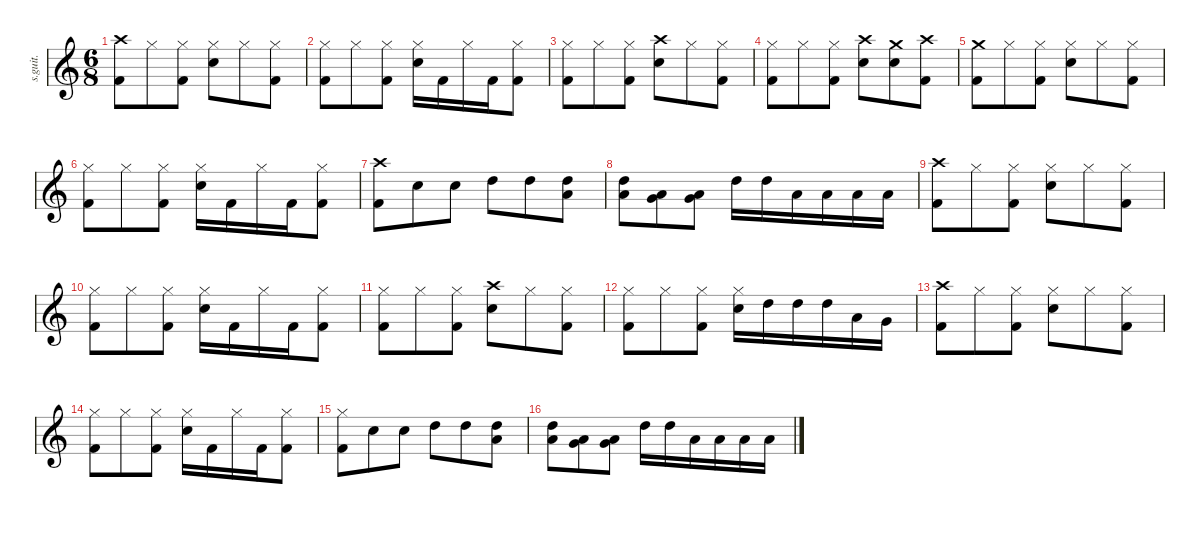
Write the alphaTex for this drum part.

\defaultSystemsLayout 4
\hideDynamics
\bracketExtendMode nobrackets
\track ("Drumkit" "s.guit.") {instrument percussion}
\staff {score}
\articulation defaults
\ts (6 8)
\tempo (78 hide)
\clef g2
\ks c
("Crash high (hit)" "Kick (hit) 2").8{lyrics (0 "") lyrics (1 "") lyrics (2 "") lyrics (3 "") lyrics (4 "") dy f} "Hi-Hat (closed)".8{lyrics (0 "") lyrics (1 "") lyrics (2 "") lyrics (3 "") lyrics (4 "")} ("Hi-Hat (closed)" "Kick (hit) 2").8{lyrics (0 "") lyrics (1 "") lyrics (2 "") lyrics (3 "") lyrics (4 "")} ("Hi-Hat (closed)" "Snare (hit) 2").8{lyrics (0 "") lyrics (1 "") lyrics (2 "") lyrics (3 "") lyrics (4 "")} "Hi-Hat (closed)".8{lyrics (0 "") lyrics (1 "") lyrics (2 "") lyrics (3 "") lyrics (4 "")} ("Hi-Hat (closed)" "Kick (hit) 2").8{lyrics (0 "") lyrics (1 "") lyrics (2 "") lyrics (3 "") lyrics (4 "")} |
("Hi-Hat (closed)" "Kick (hit) 2").8{lyrics (0 "") lyrics (1 "") lyrics (2 "") lyrics (3 "") lyrics (4 "")} "Hi-Hat (closed)".8{lyrics (0 "") lyrics (1 "") lyrics (2 "") lyrics (3 "") lyrics (4 "")} ("Hi-Hat (closed)" "Kick (hit) 2").8{lyrics (0 "") lyrics (1 "") lyrics (2 "") lyrics (3 "") lyrics (4 "")} ("Hi-Hat (closed)" "Snare (hit) 2").16{lyrics (0 "") lyrics (1 "") lyrics (2 "") lyrics (3 "") lyrics (4 "")} "Kick (hit) 2".16{lyrics (0 "") lyrics (1 "") lyrics (2 "") lyrics (3 "") lyrics (4 "")} "Hi-Hat (closed)".16{lyrics (0 "") lyrics (1 "") lyrics (2 "") lyrics (3 "") lyrics (4 "")} "Kick (hit) 2".16{lyrics (0 "") lyrics (1 "") lyrics (2 "") lyrics (3 "") lyrics (4 "")} ("Hi-Hat (closed)" "Kick (hit) 2").8{lyrics (0 "") lyrics (1 "") lyrics (2 "") lyrics (3 "") lyrics (4 "")} |
("Hi-Hat (closed)" "Kick (hit) 2").8{lyrics (0 "") lyrics (1 "") lyrics (2 "") lyrics (3 "") lyrics (4 "") dy mf} "Hi-Hat (closed)".8{lyrics (0 "") lyrics (1 "") lyrics (2 "") lyrics (3 "") lyrics (4 "") dy f} ("Hi-Hat (closed)" "Kick (hit) 2").8{lyrics (0 "") lyrics (1 "") lyrics (2 "") lyrics (3 "") lyrics (4 "")} ("Crash high (hit)" "Snare (hit) 2").8{lyrics (0 "") lyrics (1 "") lyrics (2 "") lyrics (3 "") lyrics (4 "")} "Hi-Hat (closed)".8{lyrics (0 "") lyrics (1 "") lyrics (2 "") lyrics (3 "") lyrics (4 "")} ("Hi-Hat (closed)" "Kick (hit) 2").8{lyrics (0 "") lyrics (1 "") lyrics (2 "") lyrics (3 "") lyrics (4 "")} |
("Hi-Hat (closed)" "Kick (hit) 2").8{lyrics (0 "") lyrics (1 "") lyrics (2 "") lyrics (3 "") lyrics (4 "")} "Hi-Hat (closed)".8{lyrics (0 "") lyrics (1 "") lyrics (2 "") lyrics (3 "") lyrics (4 "")} ("Hi-Hat (closed)" "Kick (hit) 2").8{lyrics (0 "") lyrics (1 "") lyrics (2 "") lyrics (3 "") lyrics (4 "")} ("Crash high (hit)" "Snare (hit) 2").8{lyrics (0 "") lyrics (1 "") lyrics (2 "") lyrics (3 "") lyrics (4 "")} ("Crash medium (hit)" "Snare (hit) 2").8{lyrics (0 "") lyrics (1 "") lyrics (2 "") lyrics (3 "") lyrics (4 "")} ("Crash high (hit)" "Kick (hit) 2").8{lyrics (0 "") lyrics (1 "") lyrics (2 "") lyrics (3 "") lyrics (4 "")} |
("Crash medium (hit)" "Kick (hit) 2").8{lyrics (0 "") lyrics (1 "") lyrics (2 "") lyrics (3 "") lyrics (4 "")} "Hi-Hat (closed)".8{lyrics (0 "") lyrics (1 "") lyrics (2 "") lyrics (3 "") lyrics (4 "")} ("Hi-Hat (closed)" "Kick (hit) 2").8{lyrics (0 "") lyrics (1 "") lyrics (2 "") lyrics (3 "") lyrics (4 "")} ("Hi-Hat (closed)" "Snare (hit) 2").8{lyrics (0 "") lyrics (1 "") lyrics (2 "") lyrics (3 "") lyrics (4 "")} "Hi-Hat (closed)".8{lyrics (0 "") lyrics (1 "") lyrics (2 "") lyrics (3 "") lyrics (4 "")} ("Hi-Hat (closed)" "Kick (hit) 2").8{lyrics (0 "") lyrics (1 "") lyrics (2 "") lyrics (3 "") lyrics (4 "")} |
("Hi-Hat (closed)" "Kick (hit) 2").8{lyrics (0 "") lyrics (1 "") lyrics (2 "") lyrics (3 "") lyrics (4 "")} "Hi-Hat (closed)".8{lyrics (0 "") lyrics (1 "") lyrics (2 "") lyrics (3 "") lyrics (4 "")} ("Hi-Hat (closed)" "Kick (hit) 2").8{lyrics (0 "") lyrics (1 "") lyrics (2 "") lyrics (3 "") lyrics (4 "")} ("Hi-Hat (closed)" "Snare (hit) 2").16{lyrics (0 "") lyrics (1 "") lyrics (2 "") lyrics (3 "") lyrics (4 "")} "Kick (hit) 2".16{lyrics (0 "") lyrics (1 "") lyrics (2 "") lyrics (3 "") lyrics (4 "")} "Hi-Hat (closed)".16{lyrics (0 "") lyrics (1 "") lyrics (2 "") lyrics (3 "") lyrics (4 "")} "Kick (hit) 2".16{lyrics (0 "") lyrics (1 "") lyrics (2 "") lyrics (3 "") lyrics (4 "")} ("Hi-Hat (closed)" "Kick (hit) 2").8{lyrics (0 "") lyrics (1 "") lyrics (2 "") lyrics (3 "") lyrics (4 "")} |
("Crash high (hit)" "Kick (hit) 2").8{lyrics (0 "") lyrics (1 "") lyrics (2 "") lyrics (3 "") lyrics (4 "")} "Snare (hit) 2".8{lyrics (0 "") lyrics (1 "") lyrics (2 "") lyrics (3 "") lyrics (4 "") dy ppp} "Snare (hit) 2".8{lyrics (0 "") lyrics (1 "") lyrics (2 "") lyrics (3 "") lyrics (4 "")} "High Tom (hit)".8{lyrics (0 "") lyrics (1 "") lyrics (2 "") lyrics (3 "") lyrics (4 "") dy f} "High Tom (hit)".8{lyrics (0 "") lyrics (1 "") lyrics (2 "") lyrics (3 "") lyrics (4 "")} ("High Tom (hit)" "Low Tom (hit)").8{lyrics (0 "") lyrics (1 "") lyrics (2 "") lyrics (3 "") lyrics (4 "")} |
("High Tom (hit)" "Low Tom (hit)").8{lyrics (0 "") lyrics (1 "") lyrics (2 "") lyrics (3 "") lyrics (4 "")} ("Low Tom (hit)" "Very Low Tom (hit)").8{lyrics (0 "") lyrics (1 "") lyrics (2 "") lyrics (3 "") lyrics (4 "")} ("Low Tom (hit)" "Very Low Tom (hit)").8{lyrics (0 "") lyrics (1 "") lyrics (2 "") lyrics (3 "") lyrics (4 "")} "High Tom (hit)".16{lyrics (0 "") lyrics (1 "") lyrics (2 "") lyrics (3 "") lyrics (4 "")} "High Tom (hit)".16{lyrics (0 "") lyrics (1 "") lyrics (2 "") lyrics (3 "") lyrics (4 "")} "Low Tom (hit)".16{lyrics (0 "") lyrics (1 "") lyrics (2 "") lyrics (3 "") lyrics (4 "")} "Low Tom (hit)".16{lyrics (0 "") lyrics (1 "") lyrics (2 "") lyrics (3 "") lyrics (4 "")} "Low Floor Tom (hit)".16{lyrics (0 "") lyrics (1 "") lyrics (2 "") lyrics (3 "") lyrics (4 "")} "Low Floor Tom (hit)".16{lyrics (0 "") lyrics (1 "") lyrics (2 "") lyrics (3 "") lyrics (4 "")} |
("Crash high (hit)" "Kick (hit) 2").8{lyrics (0 "") lyrics (1 "") lyrics (2 "") lyrics (3 "") lyrics (4 "")} "Hi-Hat (closed)".8{lyrics (0 "") lyrics (1 "") lyrics (2 "") lyrics (3 "") lyrics (4 "")} ("Hi-Hat (closed)" "Kick (hit) 2").8{lyrics (0 "") lyrics (1 "") lyrics (2 "") lyrics (3 "") lyrics (4 "")} ("Hi-Hat (closed)" "Snare (hit) 2").8{lyrics (0 "") lyrics (1 "") lyrics (2 "") lyrics (3 "") lyrics (4 "")} "Hi-Hat (closed)".8{lyrics (0 "") lyrics (1 "") lyrics (2 "") lyrics (3 "") lyrics (4 "")} ("Hi-Hat (closed)" "Kick (hit) 2").8{lyrics (0 "") lyrics (1 "") lyrics (2 "") lyrics (3 "") lyrics (4 "")} |
("Hi-Hat (closed)" "Kick (hit) 2").8{lyrics (0 "") lyrics (1 "") lyrics (2 "") lyrics (3 "") lyrics (4 "")} "Hi-Hat (closed)".8{lyrics (0 "") lyrics (1 "") lyrics (2 "") lyrics (3 "") lyrics (4 "")} ("Hi-Hat (closed)" "Kick (hit) 2").8{lyrics (0 "") lyrics (1 "") lyrics (2 "") lyrics (3 "") lyrics (4 "")} ("Hi-Hat (closed)" "Snare (hit) 2").16{lyrics (0 "") lyrics (1 "") lyrics (2 "") lyrics (3 "") lyrics (4 "")} "Kick (hit) 2".16{lyrics (0 "") lyrics (1 "") lyrics (2 "") lyrics (3 "") lyrics (4 "")} "Hi-Hat (closed)".16{lyrics (0 "") lyrics (1 "") lyrics (2 "") lyrics (3 "") lyrics (4 "")} "Kick (hit) 2".16{lyrics (0 "") lyrics (1 "") lyrics (2 "") lyrics (3 "") lyrics (4 "")} ("Hi-Hat (closed)" "Kick (hit) 2").8{lyrics (0 "") lyrics (1 "") lyrics (2 "") lyrics (3 "") lyrics (4 "")} |
("Hi-Hat (closed)" "Kick (hit) 2").8{lyrics (0 "") lyrics (1 "") lyrics (2 "") lyrics (3 "") lyrics (4 "") dy mf} "Hi-Hat (closed)".8{lyrics (0 "") lyrics (1 "") lyrics (2 "") lyrics (3 "") lyrics (4 "") dy f} ("Hi-Hat (closed)" "Kick (hit) 2").8{lyrics (0 "") lyrics (1 "") lyrics (2 "") lyrics (3 "") lyrics (4 "")} ("Crash high (hit)" "Snare (hit) 2").8{lyrics (0 "") lyrics (1 "") lyrics (2 "") lyrics (3 "") lyrics (4 "")} "Hi-Hat (closed)".8{lyrics (0 "") lyrics (1 "") lyrics (2 "") lyrics (3 "") lyrics (4 "")} ("Hi-Hat (closed)" "Kick (hit) 2").8{lyrics (0 "") lyrics (1 "") lyrics (2 "") lyrics (3 "") lyrics (4 "")} |
("Hi-Hat (closed)" "Kick (hit) 2").8{lyrics (0 "") lyrics (1 "") lyrics (2 "") lyrics (3 "") lyrics (4 "")} "Hi-Hat (closed)".8{lyrics (0 "") lyrics (1 "") lyrics (2 "") lyrics (3 "") lyrics (4 "")} ("Hi-Hat (closed)" "Kick (hit) 2").8{lyrics (0 "") lyrics (1 "") lyrics (2 "") lyrics (3 "") lyrics (4 "")} ("Hi-Hat (closed)" "Snare (hit) 2").16{lyrics (0 "") lyrics (1 "") lyrics (2 "") lyrics (3 "") lyrics (4 "")} "High Tom (hit)".16{lyrics (0 "") lyrics (1 "") lyrics (2 "") lyrics (3 "") lyrics (4 "")} "High Tom (hit)".16{lyrics (0 "") lyrics (1 "") lyrics (2 "") lyrics (3 "") lyrics (4 "")} "High Tom (hit)".16{lyrics (0 "") lyrics (1 "") lyrics (2 "") lyrics (3 "") lyrics (4 "")} "Low Tom (hit)".16{lyrics (0 "") lyrics (1 "") lyrics (2 "") lyrics (3 "") lyrics (4 "")} "Very Low Tom (hit)".16{lyrics (0 "") lyrics (1 "") lyrics (2 "") lyrics (3 "") lyrics (4 "")} |
("Crash high (hit)" "Kick (hit) 2").8{lyrics (0 "") lyrics (1 "") lyrics (2 "") lyrics (3 "") lyrics (4 "")} "Hi-Hat (closed)".8{lyrics (0 "") lyrics (1 "") lyrics (2 "") lyrics (3 "") lyrics (4 "")} ("Hi-Hat (closed)" "Kick (hit) 2").8{lyrics (0 "") lyrics (1 "") lyrics (2 "") lyrics (3 "") lyrics (4 "")} ("Hi-Hat (closed)" "Snare (hit) 2").8{lyrics (0 "") lyrics (1 "") lyrics (2 "") lyrics (3 "") lyrics (4 "")} "Hi-Hat (closed)".8{lyrics (0 "") lyrics (1 "") lyrics (2 "") lyrics (3 "") lyrics (4 "")} ("Hi-Hat (closed)" "Kick (hit) 2").8{lyrics (0 "") lyrics (1 "") lyrics (2 "") lyrics (3 "") lyrics (4 "")} |
("Hi-Hat (closed)" "Kick (hit) 2").8{lyrics (0 "") lyrics (1 "") lyrics (2 "") lyrics (3 "") lyrics (4 "")} "Hi-Hat (closed)".8{lyrics (0 "") lyrics (1 "") lyrics (2 "") lyrics (3 "") lyrics (4 "")} ("Hi-Hat (closed)" "Kick (hit) 2").8{lyrics (0 "") lyrics (1 "") lyrics (2 "") lyrics (3 "") lyrics (4 "")} ("Hi-Hat (closed)" "Snare (hit) 2").16{lyrics (0 "") lyrics (1 "") lyrics (2 "") lyrics (3 "") lyrics (4 "")} "Kick (hit) 2".16{lyrics (0 "") lyrics (1 "") lyrics (2 "") lyrics (3 "") lyrics (4 "")} "Hi-Hat (closed)".16{lyrics (0 "") lyrics (1 "") lyrics (2 "") lyrics (3 "") lyrics (4 "")} "Kick (hit) 2".16{lyrics (0 "") lyrics (1 "") lyrics (2 "") lyrics (3 "") lyrics (4 "")} ("Hi-Hat (closed)" "Kick (hit) 2").8{lyrics (0 "") lyrics (1 "") lyrics (2 "") lyrics (3 "") lyrics (4 "")} |
("Hi-Hat (closed)" "Kick (hit) 2").8{lyrics (0 "") lyrics (1 "") lyrics (2 "") lyrics (3 "") lyrics (4 "")} "Snare (hit) 2".8{lyrics (0 "") lyrics (1 "") lyrics (2 "") lyrics (3 "") lyrics (4 "")} "Snare (hit) 2".8{lyrics (0 "") lyrics (1 "") lyrics (2 "") lyrics (3 "") lyrics (4 "")} "High Tom (hit)".8{lyrics (0 "") lyrics (1 "") lyrics (2 "") lyrics (3 "") lyrics (4 "")} "High Tom (hit)".8{lyrics (0 "") lyrics (1 "") lyrics (2 "") lyrics (3 "") lyrics (4 "")} ("High Tom (hit)" "Low Tom (hit)").8{lyrics (0 "") lyrics (1 "") lyrics (2 "") lyrics (3 "") lyrics (4 "")} |
("High Tom (hit)" "Low Tom (hit)").8{lyrics (0 "") lyrics (1 "") lyrics (2 "") lyrics (3 "") lyrics (4 "")} ("Low Tom (hit)" "Very Low Tom (hit)").8{lyrics (0 "") lyrics (1 "") lyrics (2 "") lyrics (3 "") lyrics (4 "")} ("Low Tom (hit)" "Very Low Tom (hit)").8{lyrics (0 "") lyrics (1 "") lyrics (2 "") lyrics (3 "") lyrics (4 "")} "High Tom (hit)".16{lyrics (0 "") lyrics (1 "") lyrics (2 "") lyrics (3 "") lyrics (4 "")} "High Tom (hit)".16{lyrics (0 "") lyrics (1 "") lyrics (2 "") lyrics (3 "") lyrics (4 "")} "Low Tom (hit)".16{lyrics (0 "") lyrics (1 "") lyrics (2 "") lyrics (3 "") lyrics (4 "")} "Low Tom (hit)".16{lyrics (0 "") lyrics (1 "") lyrics (2 "") lyrics (3 "") lyrics (4 "")} "Low Floor Tom (hit)".16{lyrics (0 "") lyrics (1 "") lyrics (2 "") lyrics (3 "") lyrics (4 "")} "Low Floor Tom (hit)".16{lyrics (0 "") lyrics (1 "") lyrics (2 "") lyrics (3 "") lyrics (4 "")}
